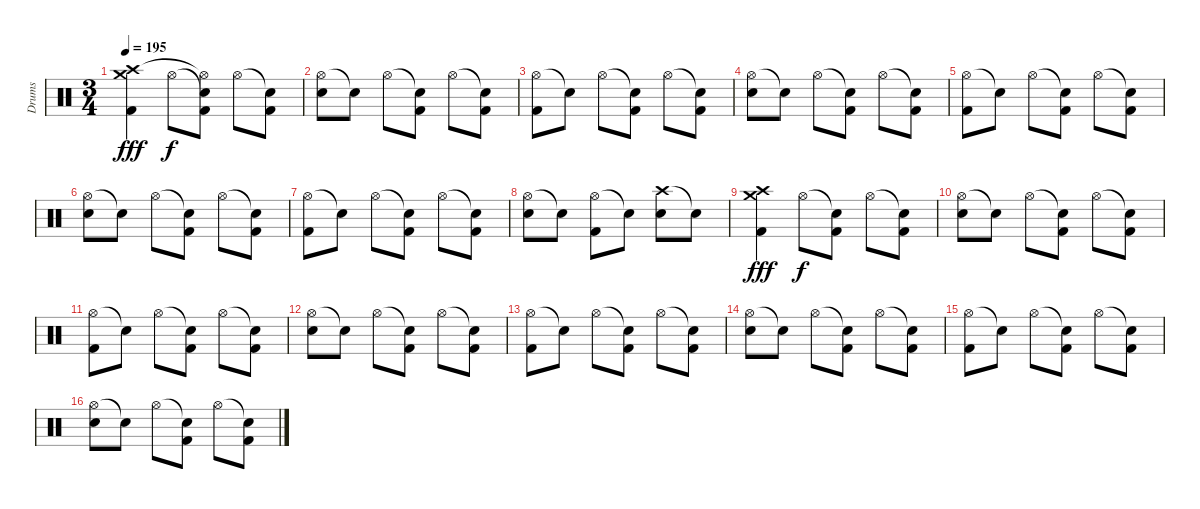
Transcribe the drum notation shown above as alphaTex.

\track ("Drums" "Drums") {instrument percussion}
\staff {score}
\articulation defaults
\ts (3 4)
\tempo 195
\clef neutral
\ks c
("Crash medium (hit)" "Crash high (hit)" "Kick (hit) 2").4{dy fff} "Hi-Hat (open)".8{dy f} ("Snare (hit)"{t} "Hi-Hat (open)"{t} "Kick (hit) 2").8 "Hi-Hat (open)".8 ("Snare (hit)"{t} "Kick (hit) 2").8 |
("Hi-Hat (open)" "Electric Snare (hit)").8 "Snare (hit)"{t}.8 "Hi-Hat (open)".8 ("Snare (hit)"{t} "Kick (hit) 2").8 "Hi-Hat (open)".8 ("Snare (hit)"{t} "Kick (hit) 2").8 |
("Hi-Hat (open)" "Kick (hit) 2").8 "Snare (hit)"{t}.8 "Hi-Hat (open)".8 ("Snare (hit)"{t} "Kick (hit) 2").8 "Hi-Hat (open)".8 ("Snare (hit)"{t} "Kick (hit) 2").8 |
("Hi-Hat (open)" "Electric Snare (hit)").8 "Snare (hit)"{t}.8 "Hi-Hat (open)".8 ("Snare (hit)"{t} "Kick (hit) 2").8 "Hi-Hat (open)".8 ("Snare (hit)"{t} "Kick (hit) 2").8 |
("Hi-Hat (open)" "Kick (hit) 2").8 "Snare (hit)"{t}.8 "Hi-Hat (open)".8 ("Snare (hit)"{t} "Kick (hit) 2").8 "Hi-Hat (open)".8 ("Snare (hit)"{t} "Kick (hit) 2").8 |
("Hi-Hat (open)" "Electric Snare (hit)").8 "Snare (hit)"{t}.8 "Hi-Hat (open)".8 ("Snare (hit)"{t} "Kick (hit) 2").8 "Hi-Hat (open)".8 ("Snare (hit)"{t} "Kick (hit) 2").8 |
("Hi-Hat (open)" "Kick (hit) 2").8 "Snare (hit)"{t}.8 "Hi-Hat (open)".8 ("Snare (hit)"{t} "Kick (hit) 2").8 "Hi-Hat (open)".8 ("Snare (hit)"{t} "Kick (hit) 2").8 |
("Hi-Hat (open)" "Electric Snare (hit)").8 "Snare (hit)"{t}.8 ("Hi-Hat (open)" "Kick (hit) 2").8 "Snare (hit)"{t}.8 ("Crash high (hit)" "Electric Snare (hit)").8 "Snare (hit)"{t}.8 |
("Crash medium (hit)" "Crash high (hit)" "Kick (hit) 2").4{dy fff} "Hi-Hat (open)".8{dy f} ("Snare (hit)"{t} "Kick (hit) 2").8 "Hi-Hat (open)".8 ("Snare (hit)"{t} "Kick (hit) 2").8 |
("Hi-Hat (open)" "Electric Snare (hit)").8 "Snare (hit)"{t}.8 "Hi-Hat (open)".8 ("Snare (hit)"{t} "Kick (hit) 2").8 "Hi-Hat (open)".8 ("Snare (hit)"{t} "Kick (hit) 2").8 |
("Hi-Hat (open)" "Kick (hit) 2").8 "Snare (hit)"{t}.8 "Hi-Hat (open)".8 ("Snare (hit)"{t} "Kick (hit) 2").8 "Hi-Hat (open)".8 ("Snare (hit)"{t} "Kick (hit) 2").8 |
("Hi-Hat (open)" "Electric Snare (hit)").8 "Snare (hit)"{t}.8 "Hi-Hat (open)".8 ("Snare (hit)"{t} "Kick (hit) 2").8 "Hi-Hat (open)".8 ("Snare (hit)"{t} "Kick (hit) 2").8 |
("Hi-Hat (open)" "Kick (hit) 2").8 "Snare (hit)"{t}.8 "Hi-Hat (open)".8 ("Snare (hit)"{t} "Kick (hit) 2").8 "Hi-Hat (open)".8 ("Snare (hit)"{t} "Kick (hit) 2").8 |
("Hi-Hat (open)" "Electric Snare (hit)").8 "Snare (hit)"{t}.8 "Hi-Hat (open)".8 ("Snare (hit)"{t} "Kick (hit) 2").8 "Hi-Hat (open)".8 ("Snare (hit)"{t} "Kick (hit) 2").8 |
("Hi-Hat (open)" "Kick (hit) 2").8 "Snare (hit)"{t}.8 "Hi-Hat (open)".8 ("Snare (hit)"{t} "Kick (hit) 2").8 "Hi-Hat (open)".8 ("Snare (hit)"{t} "Kick (hit) 2").8 |
("Hi-Hat (open)" "Electric Snare (hit)").8 "Snare (hit)"{t}.8 "Hi-Hat (open)".8 ("Snare (hit)"{t} "Kick (hit) 2").8 "Hi-Hat (open)".8 ("Snare (hit)"{t} "Kick (hit) 2").8
